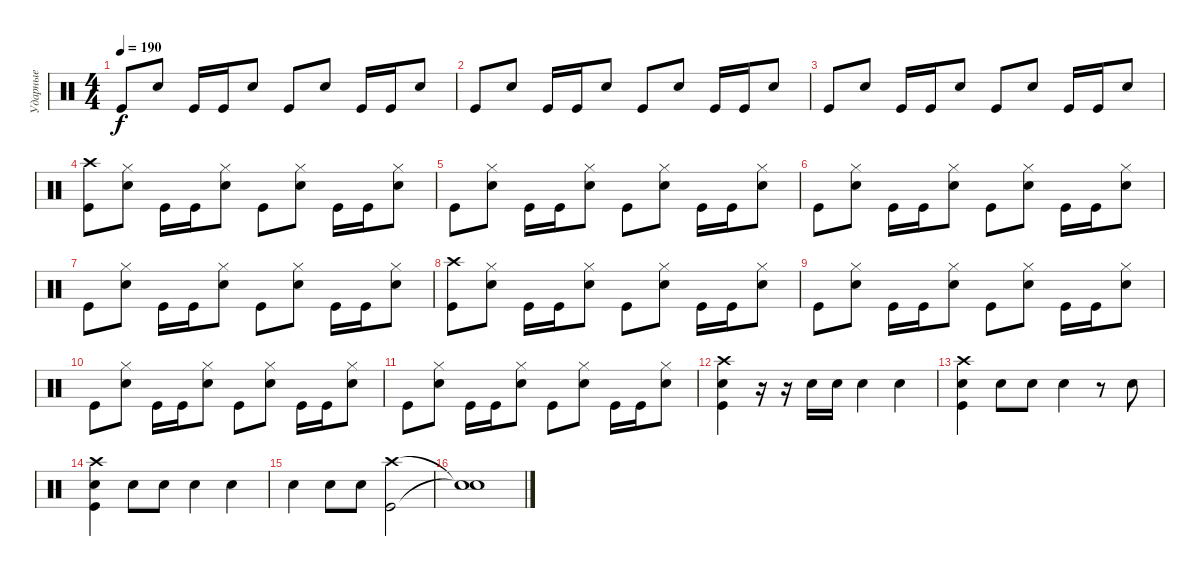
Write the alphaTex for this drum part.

\track ("Ударные" "Ударные") {instrument percussion}
\staff {score}
\articulation defaults
\ts (4 4)
\tempo 190
\clef neutral
\ks c "Kick (hit)".8{dy f} "Electric Snare (hit)".8 "Kick (hit)".16 "Kick (hit)".16 "Electric Snare (hit)".8 "Kick (hit)".8 "Electric Snare (hit)".8 "Kick (hit)".16 "Kick (hit)".16 "Electric Snare (hit)".8
|
"Kick (hit)".8 "Electric Snare (hit)".8 "Kick (hit)".16 "Kick (hit)".16 "Electric Snare (hit)".8 "Kick (hit)".8 "Electric Snare (hit)".8 "Kick (hit)".16 "Kick (hit)".16 "Electric Snare (hit)".8 |
"Kick (hit)".8 "Electric Snare (hit)".8 "Kick (hit)".16 "Kick (hit)".16 "Electric Snare (hit)".8 "Kick (hit)".8 "Electric Snare (hit)".8 "Kick (hit)".16 "Kick (hit)".16 "Electric Snare (hit)".8 |
("Crash high (hit)" "Kick (hit)").8 ("Hi-Hat (closed)" "Electric Snare (hit)").8 "Kick (hit)".16 "Kick (hit)".16 ("Hi-Hat (closed)" "Electric Snare (hit)").8 "Kick (hit)".8 ("Hi-Hat (closed)" "Electric Snare (hit)").8 "Kick (hit)".16 "Kick (hit)".16 ("Hi-Hat (closed)" "Electric Snare (hit)").8 |
"Kick (hit)".8 ("Hi-Hat (closed)" "Electric Snare (hit)").8 "Kick (hit)".16 "Kick (hit)".16 ("Hi-Hat (closed)" "Electric Snare (hit)").8 "Kick (hit)".8 ("Hi-Hat (closed)" "Electric Snare (hit)").8 "Kick (hit)".16 "Kick (hit)".16 ("Hi-Hat (closed)" "Electric Snare (hit)").8 |
"Kick (hit)".8 ("Hi-Hat (closed)" "Electric Snare (hit)").8 "Kick (hit)".16 "Kick (hit)".16 ("Hi-Hat (closed)" "Electric Snare (hit)").8 "Kick (hit)".8 ("Hi-Hat (closed)" "Electric Snare (hit)").8 "Kick (hit)".16 "Kick (hit)".16 ("Hi-Hat (closed)" "Electric Snare (hit)").8 |
"Kick (hit)".8 ("Hi-Hat (closed)" "Electric Snare (hit)").8 "Kick (hit)".16 "Kick (hit)".16 ("Hi-Hat (closed)" "Electric Snare (hit)").8 "Kick (hit)".8 ("Hi-Hat (closed)" "Electric Snare (hit)").8 "Kick (hit)".16 "Kick (hit)".16 ("Hi-Hat (closed)" "Electric Snare (hit)").8 |
("Crash high (hit)" "Kick (hit)").8 ("Hi-Hat (closed)" "Electric Snare (hit)").8 "Kick (hit)".16 "Kick (hit)".16 ("Hi-Hat (closed)" "Electric Snare (hit)").8 "Kick (hit)".8 ("Hi-Hat (closed)" "Electric Snare (hit)").8 "Kick (hit)".16 "Kick (hit)".16 ("Hi-Hat (closed)" "Electric Snare (hit)").8 |
"Kick (hit)".8 ("Hi-Hat (closed)" "Electric Snare (hit)").8 "Kick (hit)".16 "Kick (hit)".16 ("Hi-Hat (closed)" "Electric Snare (hit)").8 "Kick (hit)".8 ("Hi-Hat (closed)" "Electric Snare (hit)").8 "Kick (hit)".16 "Kick (hit)".16 ("Hi-Hat (closed)" "Electric Snare (hit)").8 |
"Kick (hit)".8 ("Hi-Hat (closed)" "Electric Snare (hit)").8 "Kick (hit)".16 "Kick (hit)".16 ("Hi-Hat (closed)" "Electric Snare (hit)").8 "Kick (hit)".8 ("Hi-Hat (closed)" "Electric Snare (hit)").8 "Kick (hit)".16 "Kick (hit)".16 ("Hi-Hat (closed)" "Electric Snare (hit)").8 |
"Kick (hit)".8 ("Hi-Hat (closed)" "Electric Snare (hit)").8 "Kick (hit)".16 "Kick (hit)".16 ("Hi-Hat (closed)" "Electric Snare (hit)").8 "Kick (hit)".8 ("Hi-Hat (closed)" "Electric Snare (hit)").8 "Kick (hit)".16 "Kick (hit)".16 ("Hi-Hat (closed)" "Electric Snare (hit)").8 |
("Crash high (hit)" "Electric Snare (hit)" "Kick (hit)").4 r.16 r.16 "Electric Snare (hit)".16 "Electric Snare (hit)".16 "Electric Snare (hit)".4 "Electric Snare (hit)".4 |
("Crash high (hit)" "Electric Snare (hit)" "Kick (hit)").4 "Electric Snare (hit)".8 "Electric Snare (hit)".8 "Electric Snare (hit)".4 r.8 "Electric Snare (hit)".8 |
("Crash high (hit)" "Electric Snare (hit)" "Kick (hit)").4 "Electric Snare (hit)".8 "Electric Snare (hit)".8 "Electric Snare (hit)".4 "Electric Snare (hit)".4 |
"Electric Snare (hit)".4 "Electric Snare (hit)".8 "Electric Snare (hit)".8 ("Crash high (hit)" "Kick (hit)").2 |
("Snare (hit)"{t} "Snare (hit)"{t}).1
